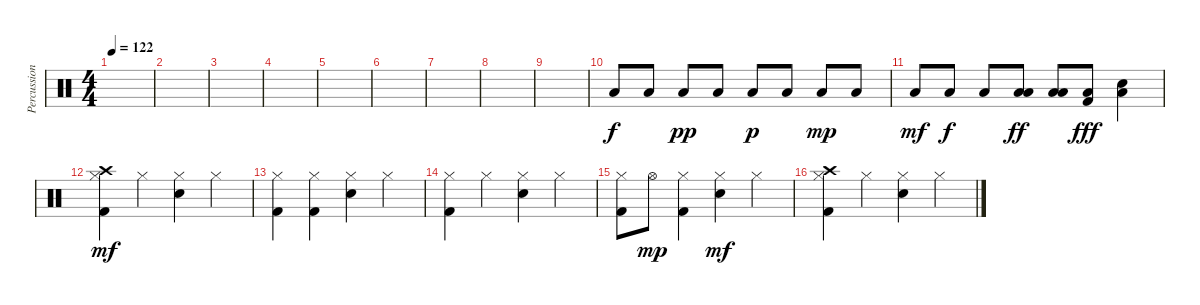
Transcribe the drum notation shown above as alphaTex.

\track ("Percussion" "Percussion") {instrument percussion}
\staff {score}
\articulation defaults
\ts (4 4)
\tempo 122
\clef neutral
\ks c
|
|
|
|
|
|
|
|
|
"Low Floor Tom (hit)".8 "Low Floor Tom (hit)".8 "Low Floor Tom (hit)".8{dy pp} "Low Floor Tom (hit)".8 "Low Floor Tom (hit)".8{dy p} "Low Floor Tom (hit)".8 "Low Floor Tom (hit)".8{dy mp} "Low Floor Tom (hit)".8 |
"Low Floor Tom (hit)".8{dy mf} "Low Floor Tom (hit)".8{dy f} "Low Floor Tom (hit)".8 ("Low Tom (hit)" "Low Floor Tom (hit)").8{dy ff} ("Low Tom (hit)" "Low Floor Tom (hit)").8 ("Low Floor Tom (hit)" "Kick (hit) 2").8{dy fff} ("Electric Snare (hit)" "Low Floor Tom (hit)").4 |
("Hi-Hat (closed)" "Crash high (hit)" "Kick (hit) 2").4{dy mf} "Hi-Hat (closed)".4 ("Hi-Hat (closed)" "Snare (hit) 2").4 "Hi-Hat (closed)".4 |
("Hi-Hat (closed)" "Kick (hit) 2").4 ("Hi-Hat (closed)" "Kick (hit) 2").4 ("Hi-Hat (closed)" "Snare (hit) 2").4 "Hi-Hat (closed)".4 |
("Hi-Hat (closed)" "Kick (hit) 2").4 "Hi-Hat (closed)".4 ("Hi-Hat (closed)" "Snare (hit) 2").4 "Hi-Hat (closed)".4 |
("Hi-Hat (closed)" "Kick (hit) 2").8 "Hi-Hat (open)".8{dy mp} ("Hi-Hat (closed)" "Kick (hit) 2").4 ("Hi-Hat (closed)" "Snare (hit) 2").4{dy mf} "Hi-Hat (closed)".4 |
("Hi-Hat (closed)" "Crash high (hit)" "Kick (hit) 2").4 "Hi-Hat (closed)".4 ("Hi-Hat (closed)" "Snare (hit) 2").4 "Hi-Hat (closed)".4
